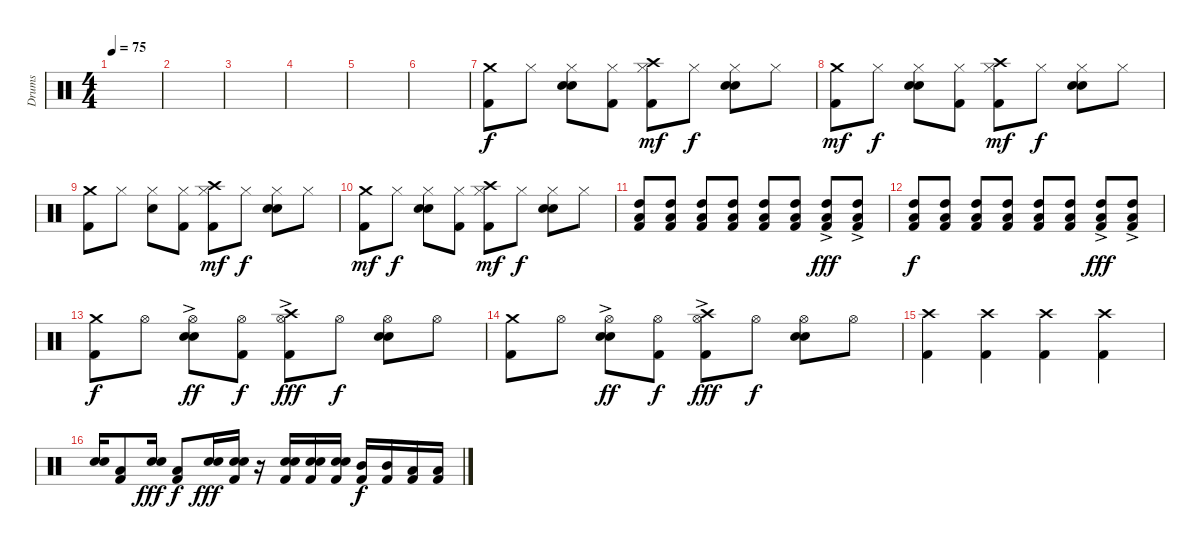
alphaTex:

\track ("Drums" "Drums") {instrument percussion}
\staff {score}
\articulation defaults
\ts (4 4)
\tempo 75
\clef neutral
\ks c
|
|
|
|
|
|
("Crash medium (hit)" "Kick (hit) 2").8{dy f} "Hi-Hat (closed)".8 ("Snare (hit) 2" "Electric Snare (hit)" "Hi-Hat (closed)").8 ("Kick (hit) 2" "Hi-Hat (closed)").8 ("Crash high (hit)" "Kick (hit) 2" "Hi-Hat (closed)").8{dy mf} "Hi-Hat (closed)".8{dy f} ("Snare (hit) 2" "Electric Snare (hit)" "Hi-Hat (closed)").8 "Hi-Hat (closed)".8 |
("Crash medium (hit)" "Kick (hit) 2").8{dy mf} "Hi-Hat (closed)".8{dy f} ("Snare (hit) 2" "Electric Snare (hit)" "Hi-Hat (closed)").8 ("Kick (hit) 2" "Hi-Hat (closed)").8 ("Crash high (hit)" "Kick (hit) 2" "Hi-Hat (closed)").8{dy mf} "Hi-Hat (closed)".8{dy f} ("Snare (hit) 2" "Electric Snare (hit)" "Hi-Hat (closed)").8 "Hi-Hat (closed)".8 |
("Crash medium (hit)" "Kick (hit) 2").8 "Hi-Hat (closed)".8 ("Snare (hit) 2" "Hi-Hat (closed)").8 ("Kick (hit) 2" "Hi-Hat (closed)").8 ("Crash high (hit)" "Kick (hit) 2" "Hi-Hat (closed)").8{dy mf} "Hi-Hat (closed)".8{dy f} ("Snare (hit) 2" "Electric Snare (hit)" "Hi-Hat (closed)").8 "Hi-Hat (closed)".8 |
("Crash medium (hit)" "Kick (hit) 2").8{dy mf} "Hi-Hat (closed)".8{dy f} ("Snare (hit) 2" "Electric Snare (hit)" "Hi-Hat (closed)").8 ("Kick (hit) 2" "Hi-Hat (closed)").8 ("Crash high (hit)" "Kick (hit) 2" "Hi-Hat (closed)").8{dy mf} "Hi-Hat (closed)".8{dy f} ("Snare (hit) 2" "Electric Snare (hit)" "Hi-Hat (closed)").8 "Hi-Hat (closed)".8 |
("High Tom (hit)" "Kick (hit) 2" "Low Tom (hit)").8 ("High Tom (hit)" "Kick (hit) 2" "Low Tom (hit)").8 ("High Tom (hit)" "Kick (hit) 2" "Low Tom (hit)").8 ("High Tom (hit)" "Kick (hit) 2" "Low Tom (hit)").8 ("High Tom (hit)" "Kick (hit) 2" "Low Tom (hit)").8 ("High Tom (hit)" "Kick (hit) 2" "Low Tom (hit)").8 ("High Tom (hit)"{ac} "Kick (hit) 2"{ac} "Low Tom (hit)"{ac}).8{dy fff} ("High Tom (hit)"{ac} "Kick (hit) 2"{ac} "Low Tom (hit)"{ac}).8 |
("High Tom (hit)" "Kick (hit) 2" "Low Tom (hit)").8{dy f} ("High Tom (hit)" "Kick (hit) 2" "Low Tom (hit)").8 ("High Tom (hit)" "Kick (hit) 2" "Low Tom (hit)").8 ("High Tom (hit)" "Kick (hit) 2" "Low Tom (hit)").8 ("High Tom (hit)" "Kick (hit) 2" "Low Tom (hit)").8 ("High Tom (hit)" "Kick (hit) 2" "Low Tom (hit)").8 ("High Tom (hit)"{ac} "Kick (hit) 2"{ac} "Low Tom (hit)"{ac}).8{dy fff} ("High Tom (hit)"{ac} "Kick (hit) 2"{ac} "Low Tom (hit)"{ac}).8 |
("Crash medium (hit)" "Kick (hit) 2").8{dy f} "Hi-Hat (open)".8 ("Snare (hit) 2"{ac} "Electric Snare (hit)"{ac} "Hi-Hat (open)").8{dy ff} ("Kick (hit) 2" "Hi-Hat (open)").8{dy f} ("Crash high (hit)"{ac} "Kick (hit) 2" "Hi-Hat (open)").8{dy fff} "Hi-Hat (open)".8{dy f} ("Snare (hit) 2" "Electric Snare (hit)" "Hi-Hat (open)").8 "Hi-Hat (open)".8 |
("Crash medium (hit)" "Kick (hit) 2").8 "Hi-Hat (open)".8 ("Snare (hit) 2"{ac} "Electric Snare (hit)"{ac} "Hi-Hat (open)").8{dy ff} ("Kick (hit) 2" "Hi-Hat (open)").8{dy f} ("Crash high (hit)"{ac} "Kick (hit) 2" "Hi-Hat (open)").8{dy fff} "Hi-Hat (open)".8{dy f} ("Snare (hit) 2" "Electric Snare (hit)" "Hi-Hat (open)").8 "Hi-Hat (open)".8 |
("Crash high (hit)" "Kick (hit) 2").4 ("Crash high (hit)" "Kick (hit) 2").4 ("Crash high (hit)" "Kick (hit) 2").4 ("Crash high (hit)" "Kick (hit) 2").4 |
("Snare (hit) 2" "Electric Snare (hit)").16 ("Low Tom (hit)" "Kick (hit) 2").8 ("Snare (hit) 2" "Electric Snare (hit)").16{dy fff} ("Low Tom (hit)" "Kick (hit) 2").8{dy f} ("Snare (hit) 2" "Electric Snare (hit)").16{dy fff} ("Snare (hit) 2" "Electric Snare (hit)" "Kick (hit) 2").16 r.16 ("Snare (hit) 2" "Electric Snare (hit)" "Kick (hit) 2").16 ("Snare (hit) 2" "Electric Snare (hit)" "Kick (hit) 2").16 ("Snare (hit) 2" "Electric Snare (hit)" "Kick (hit) 2").16 ("Mid Tom (hit)" "Kick (hit) 2").16{dy f} ("Mid Tom (hit)" "Kick (hit) 2").16 ("Low Tom (hit)" "Kick (hit) 2").16 ("Low Tom (hit)" "Kick (hit) 2").16
